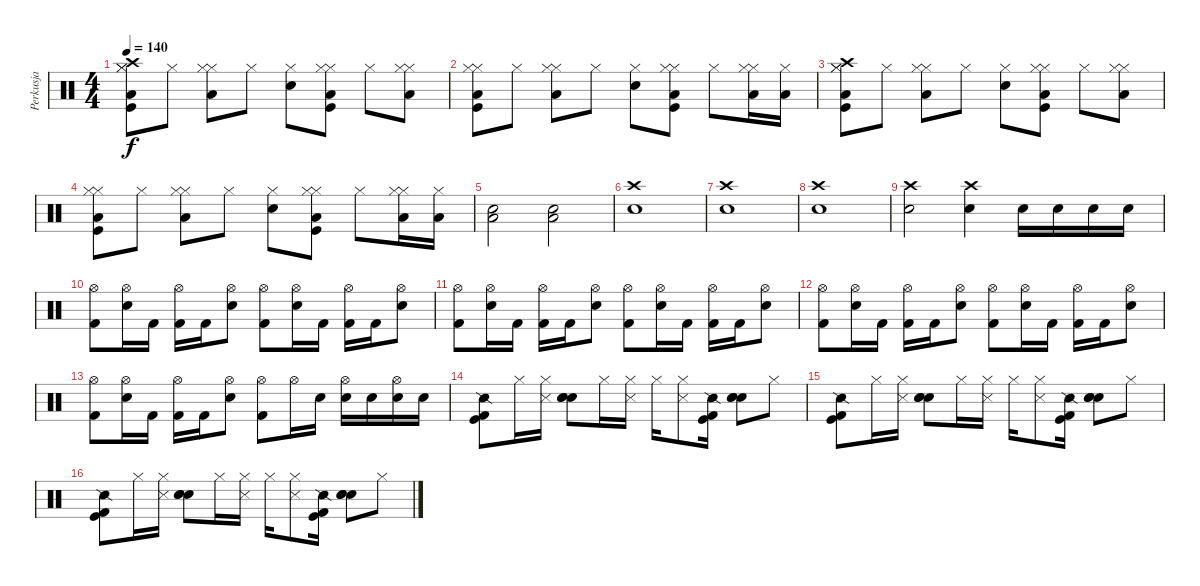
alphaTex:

\track ("Perkusja" "Perkusja") {instrument percussion}
\staff {score}
\articulation defaults
\ts (4 4)
\tempo 140
\clef neutral
\ks c
("Kick (hit)" "Hi-Hat (closed)" "Hi-Hat (closed)" "Low Floor Tom (hit)" "Crash high (hit)").8{dy f} "Hi-Hat (closed)".8 ("Hi-Hat (closed)" "Hi-Hat (closed)" "Low Floor Tom (hit)").8 "Hi-Hat (closed)".8 ("Snare (hit) 2" "Hi-Hat (closed)").8 ("Kick (hit)" "Hi-Hat (closed)" "Hi-Hat (closed)" "Low Floor Tom (hit)").8 "Hi-Hat (closed)".8 ("Hi-Hat (closed)" "Hi-Hat (closed)" "Low Floor Tom (hit)").8 |
("Kick (hit)" "Hi-Hat (closed)" "Hi-Hat (closed)" "Low Floor Tom (hit)").8 "Hi-Hat (closed)".8 ("Hi-Hat (closed)" "Hi-Hat (closed)" "Low Floor Tom (hit)").8 "Hi-Hat (closed)".8 ("Snare (hit) 2" "Hi-Hat (closed)").8 ("Kick (hit)" "Hi-Hat (closed)" "Hi-Hat (closed)" "Low Floor Tom (hit)").8 "Hi-Hat (closed)".8 ("Hi-Hat (closed)" "Hi-Hat (closed)" "Low Floor Tom (hit)").16 ("Hi-Hat (closed)" "Low Floor Tom (hit)").16 |
("Kick (hit)" "Hi-Hat (closed)" "Hi-Hat (closed)" "Low Floor Tom (hit)" "Crash high (hit)").8 "Hi-Hat (closed)".8 ("Hi-Hat (closed)" "Hi-Hat (closed)" "Low Floor Tom (hit)").8 "Hi-Hat (closed)".8 ("Snare (hit) 2" "Hi-Hat (closed)").8 ("Kick (hit)" "Hi-Hat (closed)" "Hi-Hat (closed)" "Low Floor Tom (hit)").8 "Hi-Hat (closed)".8 ("Hi-Hat (closed)" "Hi-Hat (closed)" "Low Floor Tom (hit)").8 |
("Kick (hit)" "Hi-Hat (closed)" "Hi-Hat (closed)" "Low Floor Tom (hit)").8 "Hi-Hat (closed)".8 ("Hi-Hat (closed)" "Hi-Hat (closed)" "Low Floor Tom (hit)").8 "Hi-Hat (closed)".8 ("Snare (hit) 2" "Hi-Hat (closed)").8 ("Kick (hit)" "Hi-Hat (closed)" "Hi-Hat (closed)" "Low Floor Tom (hit)").8 "Hi-Hat (closed)".8 ("Hi-Hat (closed)" "Hi-Hat (closed)" "Low Floor Tom (hit)").16 ("Hi-Hat (closed)" "Low Floor Tom (hit)").16 |
("Electric Snare (hit)" "Low Tom (hit)").2 ("Electric Snare (hit)" "Low Tom (hit)").2 |
("Crash high (hit)" "Electric Snare (hit)").1 |
("Crash high (hit)" "Electric Snare (hit)").1 |
("Crash high (hit)" "Electric Snare (hit)").1 |
("Crash high (hit)" "Electric Snare (hit)").2 ("Crash high (hit)" "Electric Snare (hit)").4 "Snare (hit) 2".16 "Snare (hit) 2".16 "Snare (hit) 2".16 "Snare (hit) 2".16 |
("Hi-Hat (open)" "Kick (hit) 2").8 ("Hi-Hat (open)" "Snare (hit) 2").16 "Kick (hit) 2".16 ("Hi-Hat (open)" "Kick (hit) 2").16 "Kick (hit) 2".16 ("Hi-Hat (open)" "Snare (hit) 2").8 ("Hi-Hat (open)" "Kick (hit) 2").8 ("Hi-Hat (open)" "Snare (hit) 2").16 "Kick (hit) 2".16 ("Hi-Hat (open)" "Kick (hit) 2").16 "Kick (hit) 2".16 ("Hi-Hat (open)" "Snare (hit) 2").8 |
("Hi-Hat (open)" "Kick (hit) 2").8 ("Hi-Hat (open)" "Snare (hit) 2").16 "Kick (hit) 2".16 ("Hi-Hat (open)" "Kick (hit) 2").16 "Kick (hit) 2".16 ("Hi-Hat (open)" "Snare (hit) 2").8 ("Hi-Hat (open)" "Kick (hit) 2").8 ("Hi-Hat (open)" "Snare (hit) 2").16 "Kick (hit) 2".16 ("Hi-Hat (open)" "Kick (hit) 2").16 "Kick (hit) 2".16 ("Hi-Hat (open)" "Snare (hit) 2").8 |
("Hi-Hat (open)" "Kick (hit) 2").8 ("Hi-Hat (open)" "Snare (hit) 2").16 "Kick (hit) 2".16 ("Hi-Hat (open)" "Kick (hit) 2").16 "Kick (hit) 2".16 ("Hi-Hat (open)" "Snare (hit) 2").8 ("Hi-Hat (open)" "Kick (hit) 2").8 ("Hi-Hat (open)" "Snare (hit) 2").16 "Kick (hit) 2".16 ("Hi-Hat (open)" "Kick (hit) 2").16 "Kick (hit) 2".16 ("Hi-Hat (open)" "Snare (hit) 2").8 |
("Hi-Hat (open)" "Kick (hit) 2").8 ("Hi-Hat (open)" "Snare (hit) 2").16 "Kick (hit) 2".16 ("Hi-Hat (open)" "Kick (hit) 2").16 "Kick (hit) 2".16 ("Hi-Hat (open)" "Snare (hit) 2").8 ("Hi-Hat (open)" "Kick (hit) 2").8 "Hi-Hat (open)".16 "Snare (hit) 2".16 ("Hi-Hat (open)" "Snare (hit) 2").16 "Snare (hit) 2".16 ("Hi-Hat (open)" "Snare (hit) 2").16 "Snare (hit) 2".16 |
("Kick (hit)" "Kick (hit) 2" "Snare (side stick) 2").8 "Hi-Hat (closed)".16 ("Hi-Hat (closed)" "Snare (side stick) 3").16 ("Snare (hit) 2" "Electric Snare (hit)" "Hand Clap (hit)").8 "Hi-Hat (closed)".16 ("Hi-Hat (closed)" "Snare (side stick) 3").16 "Hi-Hat (closed)".16 ("Hi-Hat (closed)" "Snare (side stick) 3").8 ("Kick (hit)" "Kick (hit) 2" "Snare (side stick) 2").16 ("Snare (hit) 2" "Electric Snare (hit)" "Hand Clap (hit)").8 "Hi-Hat (closed)".8 |
("Kick (hit)" "Kick (hit) 2" "Snare (side stick) 2").8 "Hi-Hat (closed)".16 ("Hi-Hat (closed)" "Snare (side stick) 3").16 ("Snare (hit) 2" "Electric Snare (hit)" "Hand Clap (hit)").8 "Hi-Hat (closed)".16 ("Hi-Hat (closed)" "Snare (side stick) 3").16 "Hi-Hat (closed)".16 ("Hi-Hat (closed)" "Snare (side stick) 3").8 ("Kick (hit)" "Kick (hit) 2" "Snare (side stick) 2").16 ("Snare (hit) 2" "Electric Snare (hit)" "Hand Clap (hit)").8 "Hi-Hat (closed)".8 |
("Kick (hit)" "Kick (hit) 2" "Snare (side stick) 2").8 "Hi-Hat (closed)".16 ("Hi-Hat (closed)" "Snare (side stick) 3").16 ("Snare (hit) 2" "Electric Snare (hit)" "Hand Clap (hit)").8 "Hi-Hat (closed)".16 ("Hi-Hat (closed)" "Snare (side stick) 3").16 "Hi-Hat (closed)".16 ("Hi-Hat (closed)" "Snare (side stick) 3").8 ("Kick (hit)" "Kick (hit) 2" "Snare (side stick) 2").16 ("Snare (hit) 2" "Electric Snare (hit)" "Hand Clap (hit)").8 "Hi-Hat (closed)".8
